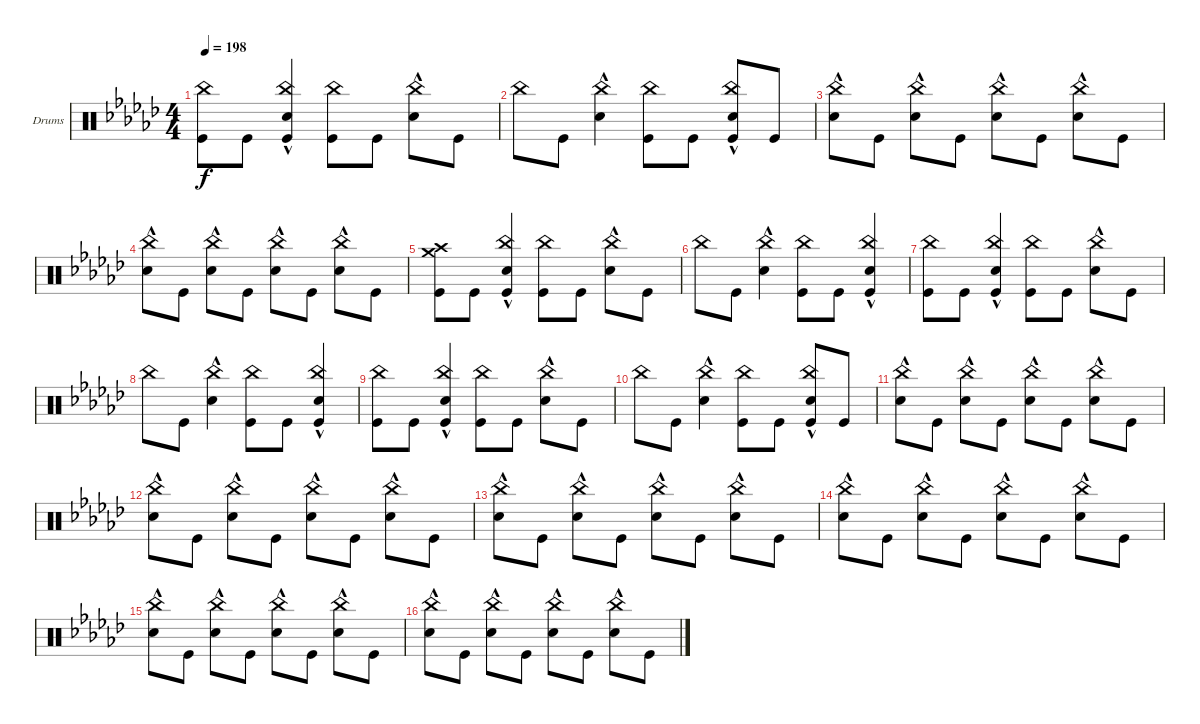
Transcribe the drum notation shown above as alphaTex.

\bracketExtendMode groupsimilarinstruments
\firstSystemTrackNameOrientation horizontal
\otherSystemsTrackNameOrientation horizontal
\track ("Drumkit" "Drums") {instrument percussion}
\staff {score}
\articulation defaults
\ts (4 4)
\tempo 198
\clef neutral
\ks ebminor
("Kick (hit)" "China (hit)").8{dy f} "Kick (hit)".8 ("Kick (hit)" "Snare (hit) 2"{hac} "China (hit)").4 ("Kick (hit)" "China (hit)").8 "Kick (hit)".8 ("Snare (hit) 2"{hac} "China (hit)").8 "Kick (hit)".8 |
"China (hit)".8 "Kick (hit)".8 ("Snare (hit) 2"{hac} "China (hit)").4 ("Kick (hit)" "China (hit)").8 "Kick (hit)".8 ("China (hit)" "Snare (hit) 2"{hac} "Kick (hit)").8 "Kick (hit)".8 |
("Snare (hit) 2"{hac} "China (hit)").8 "Kick (hit)".8 ("Snare (hit) 2"{hac} "China (hit)").8 "Kick (hit)".8 ("Snare (hit) 2"{hac} "China (hit)").8 "Kick (hit)".8 ("Snare (hit) 2"{hac} "China (hit)").8 "Kick (hit)".8 |
("Snare (hit) 2"{hac} "China (hit)").8 "Kick (hit)".8 ("Snare (hit) 2"{hac} "China (hit)").8 "Kick (hit)".8 ("Snare (hit) 2"{hac} "China (hit)").8 "Kick (hit)".8 ("Snare (hit) 2"{hac} "China (hit)").8 "Kick (hit)".8 |
("Kick (hit)" "Crash medium (hit)" "Crash high (hit)").8 "Kick (hit)".8 ("Kick (hit)" "Snare (hit) 2"{hac} "China (hit)").4 ("Kick (hit)" "China (hit)").8 "Kick (hit)".8 ("Snare (hit) 2"{hac} "China (hit)").8 "Kick (hit)".8 |
"China (hit)".8 "Kick (hit)".8 ("Snare (hit) 2"{hac} "China (hit)").4 ("Kick (hit)" "China (hit)").8 "Kick (hit)".8 ("Kick (hit)" "China (hit)" "Snare (hit) 2"{hac}).4 |
("Kick (hit)" "China (hit)").8 "Kick (hit)".8 ("Kick (hit)" "Snare (hit) 2"{hac} "China (hit)").4 ("Kick (hit)" "China (hit)").8 "Kick (hit)".8 ("Snare (hit) 2"{hac} "China (hit)").8 "Kick (hit)".8 |
"China (hit)".8 "Kick (hit)".8 ("Snare (hit) 2"{hac} "China (hit)").4 ("Kick (hit)" "China (hit)").8 "Kick (hit)".8 ("Kick (hit)" "China (hit)" "Snare (hit) 2"{hac}).4 |
("Kick (hit)" "China (hit)").8 "Kick (hit)".8 ("Kick (hit)" "Snare (hit) 2"{hac} "China (hit)").4 ("Kick (hit)" "China (hit)").8 "Kick (hit)".8 ("Snare (hit) 2"{hac} "China (hit)").8 "Kick (hit)".8 |
"China (hit)".8 "Kick (hit)".8 ("Snare (hit) 2"{hac} "China (hit)").4 ("Kick (hit)" "China (hit)").8 "Kick (hit)".8 ("China (hit)" "Snare (hit) 2"{hac} "Kick (hit)").8 "Kick (hit)".8 |
("Snare (hit) 2"{hac} "China (hit)").8 "Kick (hit)".8 ("Snare (hit) 2"{hac} "China (hit)").8 "Kick (hit)".8 ("Snare (hit) 2"{hac} "China (hit)").8 "Kick (hit)".8 ("Snare (hit) 2"{hac} "China (hit)").8 "Kick (hit)".8 |
("Snare (hit) 2"{hac} "China (hit)").8 "Kick (hit)".8 ("Snare (hit) 2"{hac} "China (hit)").8 "Kick (hit)".8 ("Snare (hit) 2"{hac} "China (hit)").8 "Kick (hit)".8 ("Snare (hit) 2"{hac} "China (hit)").8 "Kick (hit)".8 |
("Snare (hit) 2"{hac} "China (hit)").8 "Kick (hit)".8 ("Snare (hit) 2"{hac} "China (hit)").8 "Kick (hit)".8 ("Snare (hit) 2"{hac} "China (hit)").8 "Kick (hit)".8 ("Snare (hit) 2"{hac} "China (hit)").8 "Kick (hit)".8 |
("Snare (hit) 2"{hac} "China (hit)").8 "Kick (hit)".8 ("Snare (hit) 2"{hac} "China (hit)").8 "Kick (hit)".8 ("Snare (hit) 2"{hac} "China (hit)").8 "Kick (hit)".8 ("Snare (hit) 2"{hac} "China (hit)").8 "Kick (hit)".8 |
("Snare (hit) 2"{hac} "China (hit)").8 "Kick (hit)".8 ("Snare (hit) 2"{hac} "China (hit)").8 "Kick (hit)".8 ("Snare (hit) 2"{hac} "China (hit)").8 "Kick (hit)".8 ("Snare (hit) 2"{hac} "China (hit)").8 "Kick (hit)".8 |
("Snare (hit) 2"{hac} "China (hit)").8 "Kick (hit)".8 ("Snare (hit) 2"{hac} "China (hit)").8 "Kick (hit)".8 ("Snare (hit) 2"{hac} "China (hit)").8 "Kick (hit)".8 ("Snare (hit) 2"{hac} "China (hit)").8 "Kick (hit)".8
